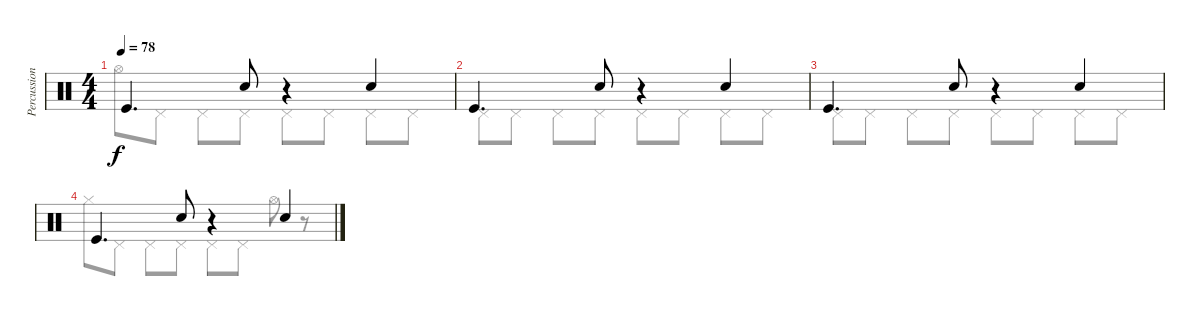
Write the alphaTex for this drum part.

\track ("Percussion" "Percussion") {instrument percussion}
\staff {score}
\articulation defaults
\voice
\ts (4 4)
\tempo 78
\clef neutral
\ks c "Kick (hit)".4{d dy f} "Snare (hit) 2".8
r.4 "Snare (hit) 2".4 |
"Kick (hit)".4{d} "Snare (hit) 2".8 r.4 "Snare (hit) 2".4 |
"Kick (hit)".4{d} "Snare (hit) 2".8 r.4 "Snare (hit) 2".4 |
"Kick (hit)".4{d} "Snare (hit) 2".8 r.4 "Snare (hit) 2".4
\voice
\clef neutral
\ottava regular
\simile none
\ks c "Hi-Hat (open)".8{dy f} "Pedal Hi-Hat (hit)".8 "Pedal Hi-Hat (hit)".8 "Pedal Hi-Hat (hit)".8 "Pedal Hi-Hat (hit)".8 "Pedal Hi-Hat (hit)".8 "Pedal Hi-Hat (hit)".8 "Pedal Hi-Hat (hit)".8
|
"Pedal Hi-Hat (hit)".8 "Pedal Hi-Hat (hit)".8 "Pedal Hi-Hat (hit)".8 "Pedal Hi-Hat (hit)".8 "Pedal Hi-Hat (hit)".8 "Pedal Hi-Hat (hit)".8 "Pedal Hi-Hat (hit)".8 "Pedal Hi-Hat (hit)".8 |
"Pedal Hi-Hat (hit)".8 "Pedal Hi-Hat (hit)".8 "Pedal Hi-Hat (hit)".8 "Pedal Hi-Hat (hit)".8 "Pedal Hi-Hat (hit)".8 "Pedal Hi-Hat (hit)".8 "Pedal Hi-Hat (hit)".8 "Pedal Hi-Hat (hit)".8 |
"Hi-Hat (closed)".8 "Pedal Hi-Hat (hit)".8 "Pedal Hi-Hat (hit)".8 "Pedal Hi-Hat (hit)".8 "Pedal Hi-Hat (hit)".8 "Pedal Hi-Hat (hit)".8 "Hi-Hat (open)".8 r.8
